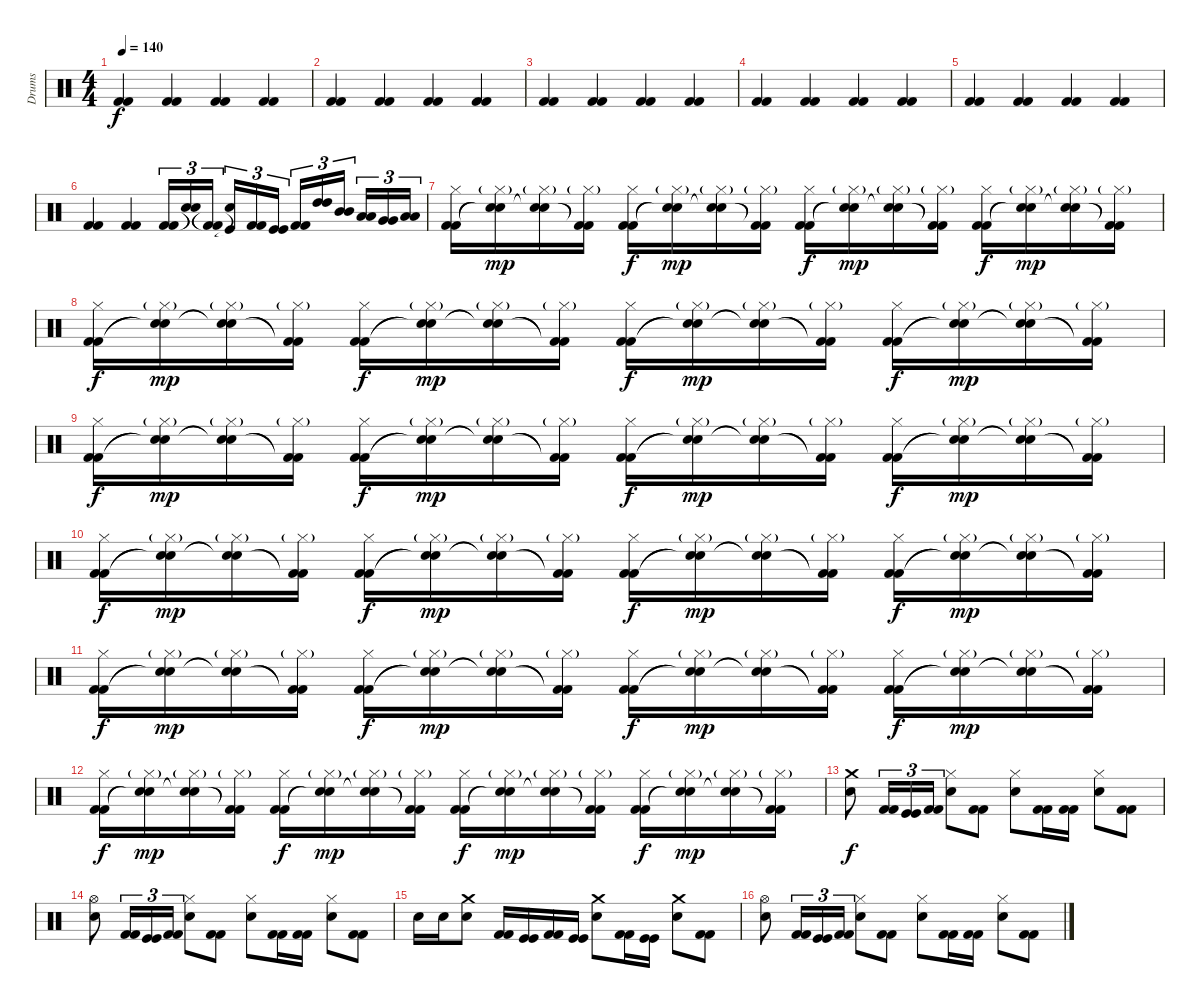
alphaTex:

\track ("Drums" "Drums") {instrument percussion}
\staff {score}
\articulation defaults
\ts (4 4)
\tempo 140
\tempo 120
\tempo 140
\clef neutral
\ks c
("Kick (hit) 2" "Kick (hit) 2").4{dy f} ("Kick (hit) 2" "Kick (hit) 2").4 ("Kick (hit) 2" "Kick (hit) 2").4 ("Kick (hit) 2" "Kick (hit) 2").4 |
("Kick (hit) 2" "Kick (hit) 2").4 ("Kick (hit) 2" "Kick (hit) 2").4 ("Kick (hit) 2" "Kick (hit) 2").4 ("Kick (hit) 2" "Kick (hit) 2").4 |
("Kick (hit) 2" "Kick (hit) 2").4 ("Kick (hit) 2" "Kick (hit) 2").4 ("Kick (hit) 2" "Kick (hit) 2").4 ("Kick (hit) 2" "Kick (hit) 2").4 |
("Kick (hit) 2" "Kick (hit) 2").4 ("Kick (hit) 2" "Kick (hit) 2").4 ("Kick (hit) 2" "Kick (hit) 2").4 ("Kick (hit) 2" "Kick (hit) 2").4 |
("Kick (hit) 2" "Kick (hit) 2").4 ("Kick (hit) 2" "Kick (hit) 2").4 ("Kick (hit) 2" "Kick (hit) 2").4 ("Kick (hit) 2" "Kick (hit) 2").4 |
("Kick (hit) 2" "Kick (hit) 2").4 ("Kick (hit) 2" "Kick (hit) 2").4 ("Kick (hit) 2" "Kick (hit) 2").16{tu (3 2)} ("Snare (hit)"{t} "Snare (hit)"{t}).16{tu (3 2)} ("Kick (hit) 2"{t} "Kick (hit) 2"{t}).16{tu (3 2)} ("Kick (hit)"{t} "Snare (hit)"{t}).16{tu (3 2)} ("Kick (hit) 2" "Kick (hit) 2").16{tu (3 2)} ("Kick (hit)" "Kick (hit)").16{tu (3 2)} ("Kick (hit) 2" "Kick (hit) 2").16{tu (3 2)} ("High Tom (hit)" "High Tom (hit)").16{tu (3 2)} ("Mid Tom (hit)" "Mid Tom (hit)").16{tu (3 2)} ("Low Tom (hit)" "Low Tom (hit)").16{tu (3 2)} ("Very Low Tom (hit)" "Very Low Tom (hit)").16{tu (3 2)} ("Low Floor Tom (hit)" "Low Floor Tom (hit)").16{tu (3 2)} |
("Hi-Hat (closed)" "Kick (hit) 2" "Kick (hit) 2").16 ("Hi-Hat (closed)"{g} "Snare (hit)"{t} "Snare (hit)"{t}).16{dy mp} ("Hi-Hat (closed)"{g} "Snare (hit)"{t} "Snare (hit)"{t}).16 ("Hi-Hat (closed)"{g} "Kick (hit) 2"{t} "Kick (hit) 2"{t}).16 ("Hi-Hat (closed)" "Kick (hit) 2" "Kick (hit) 2").16{dy f} ("Hi-Hat (closed)"{g} "Snare (hit)"{t} "Snare (hit)"{t}).16{dy mp} ("Hi-Hat (closed)"{g} "Snare (hit)"{t} "Snare (hit)"{t}).16 ("Hi-Hat (closed)"{g} "Kick (hit) 2"{t} "Kick (hit) 2"{t}).16 ("Hi-Hat (closed)" "Kick (hit) 2" "Kick (hit) 2").16{dy f} ("Hi-Hat (closed)"{g} "Snare (hit)"{t} "Snare (hit)"{t}).16{dy mp} ("Hi-Hat (closed)"{g} "Snare (hit)"{t} "Snare (hit)"{t}).16 ("Hi-Hat (closed)"{g} "Kick (hit) 2"{t} "Kick (hit) 2"{t}).16 ("Hi-Hat (closed)" "Kick (hit) 2" "Kick (hit) 2").16{dy f} ("Hi-Hat (closed)"{g} "Snare (hit)"{t} "Snare (hit)"{t}).16{dy mp} ("Hi-Hat (closed)"{g} "Snare (hit)"{t} "Snare (hit)"{t}).16 ("Hi-Hat (closed)"{g} "Kick (hit) 2"{t} "Kick (hit) 2"{t}).16 |
("Hi-Hat (closed)" "Kick (hit) 2" "Kick (hit) 2").16{dy f} ("Hi-Hat (closed)"{g} "Snare (hit)"{t} "Snare (hit)"{t}).16{dy mp} ("Hi-Hat (closed)"{g} "Snare (hit)"{t} "Snare (hit)"{t}).16 ("Hi-Hat (closed)"{g} "Kick (hit) 2"{t} "Kick (hit) 2"{t}).16 ("Hi-Hat (closed)" "Kick (hit) 2" "Kick (hit) 2").16{dy f} ("Hi-Hat (closed)"{g} "Snare (hit)"{t} "Snare (hit)"{t}).16{dy mp} ("Hi-Hat (closed)"{g} "Snare (hit)"{t} "Snare (hit)"{t}).16 ("Hi-Hat (closed)"{g} "Kick (hit) 2"{t} "Kick (hit) 2"{t}).16 ("Hi-Hat (closed)" "Kick (hit) 2" "Kick (hit) 2").16{dy f} ("Hi-Hat (closed)"{g} "Snare (hit)"{t} "Snare (hit)"{t}).16{dy mp} ("Hi-Hat (closed)"{g} "Snare (hit)"{t} "Snare (hit)"{t}).16 ("Hi-Hat (closed)"{g} "Kick (hit) 2"{t} "Kick (hit) 2"{t}).16 ("Hi-Hat (closed)" "Kick (hit) 2" "Kick (hit) 2").16{dy f} ("Hi-Hat (closed)"{g} "Snare (hit)"{t} "Snare (hit)"{t}).16{dy mp} ("Hi-Hat (closed)"{g} "Snare (hit)"{t} "Snare (hit)"{t}).16 ("Hi-Hat (closed)"{g} "Kick (hit) 2"{t} "Kick (hit) 2"{t}).16 |
("Hi-Hat (closed)" "Kick (hit) 2" "Kick (hit) 2").16{dy f} ("Hi-Hat (closed)"{g} "Snare (hit)"{t} "Snare (hit)"{t}).16{dy mp} ("Hi-Hat (closed)"{g} "Snare (hit)"{t} "Snare (hit)"{t}).16 ("Hi-Hat (closed)"{g} "Kick (hit) 2"{t} "Kick (hit) 2"{t}).16 ("Hi-Hat (closed)" "Kick (hit) 2" "Kick (hit) 2").16{dy f} ("Hi-Hat (closed)"{g} "Snare (hit)"{t} "Snare (hit)"{t}).16{dy mp} ("Hi-Hat (closed)"{g} "Snare (hit)"{t} "Snare (hit)"{t}).16 ("Hi-Hat (closed)"{g} "Kick (hit) 2"{t} "Kick (hit) 2"{t}).16 ("Hi-Hat (closed)" "Kick (hit) 2" "Kick (hit) 2").16{dy f} ("Hi-Hat (closed)"{g} "Snare (hit)"{t} "Snare (hit)"{t}).16{dy mp} ("Hi-Hat (closed)"{g} "Snare (hit)"{t} "Snare (hit)"{t}).16 ("Hi-Hat (closed)"{g} "Kick (hit) 2"{t} "Kick (hit) 2"{t}).16 ("Hi-Hat (closed)" "Kick (hit) 2" "Kick (hit) 2").16{dy f} ("Hi-Hat (closed)"{g} "Snare (hit)"{t} "Snare (hit)"{t}).16{dy mp} ("Hi-Hat (closed)"{g} "Snare (hit)"{t} "Snare (hit)"{t}).16 ("Hi-Hat (closed)"{g} "Kick (hit) 2"{t} "Kick (hit) 2"{t}).16 |
("Hi-Hat (closed)" "Kick (hit) 2" "Kick (hit) 2").16{dy f} ("Hi-Hat (closed)"{g} "Snare (hit)"{t} "Snare (hit)"{t}).16{dy mp} ("Hi-Hat (closed)"{g} "Snare (hit)"{t} "Snare (hit)"{t}).16 ("Hi-Hat (closed)"{g} "Kick (hit) 2"{t} "Kick (hit) 2"{t}).16 ("Hi-Hat (closed)" "Kick (hit) 2" "Kick (hit) 2").16{dy f} ("Hi-Hat (closed)"{g} "Snare (hit)"{t} "Snare (hit)"{t}).16{dy mp} ("Hi-Hat (closed)"{g} "Snare (hit)"{t} "Snare (hit)"{t}).16 ("Hi-Hat (closed)"{g} "Kick (hit) 2"{t} "Kick (hit) 2"{t}).16 ("Hi-Hat (closed)" "Kick (hit) 2" "Kick (hit) 2").16{dy f} ("Hi-Hat (closed)"{g} "Snare (hit)"{t} "Snare (hit)"{t}).16{dy mp} ("Hi-Hat (closed)"{g} "Snare (hit)"{t} "Snare (hit)"{t}).16 ("Hi-Hat (closed)"{g} "Kick (hit) 2"{t} "Kick (hit) 2"{t}).16 ("Hi-Hat (closed)" "Kick (hit) 2" "Kick (hit) 2").16{dy f} ("Hi-Hat (closed)"{g} "Snare (hit)"{t} "Snare (hit)"{t}).16{dy mp} ("Hi-Hat (closed)"{g} "Snare (hit)"{t} "Snare (hit)"{t}).16 ("Hi-Hat (closed)"{g} "Kick (hit) 2"{t} "Kick (hit) 2"{t}).16 |
("Hi-Hat (closed)" "Kick (hit) 2" "Kick (hit) 2").16{dy f} ("Hi-Hat (closed)"{g} "Snare (hit)"{t} "Snare (hit)"{t}).16{dy mp} ("Hi-Hat (closed)"{g} "Snare (hit)"{t} "Snare (hit)"{t}).16 ("Hi-Hat (closed)"{g} "Kick (hit) 2"{t} "Kick (hit) 2"{t}).16 ("Hi-Hat (closed)" "Kick (hit) 2" "Kick (hit) 2").16{dy f} ("Hi-Hat (closed)"{g} "Snare (hit)"{t} "Snare (hit)"{t}).16{dy mp} ("Hi-Hat (closed)"{g} "Snare (hit)"{t} "Snare (hit)"{t}).16 ("Hi-Hat (closed)"{g} "Kick (hit) 2"{t} "Kick (hit) 2"{t}).16 ("Hi-Hat (closed)" "Kick (hit) 2" "Kick (hit) 2").16{dy f} ("Hi-Hat (closed)"{g} "Snare (hit)"{t} "Snare (hit)"{t}).16{dy mp} ("Hi-Hat (closed)"{g} "Snare (hit)"{t} "Snare (hit)"{t}).16 ("Hi-Hat (closed)"{g} "Kick (hit) 2"{t} "Kick (hit) 2"{t}).16 ("Hi-Hat (closed)" "Kick (hit) 2" "Kick (hit) 2").16{dy f} ("Hi-Hat (closed)"{g} "Snare (hit)"{t} "Snare (hit)"{t}).16{dy mp} ("Hi-Hat (closed)"{g} "Snare (hit)"{t} "Snare (hit)"{t}).16 ("Hi-Hat (closed)"{g} "Kick (hit) 2"{t} "Kick (hit) 2"{t}).16 |
("Hi-Hat (closed)" "Kick (hit) 2" "Kick (hit) 2").16{dy f} ("Hi-Hat (closed)"{g} "Snare (hit)"{t} "Snare (hit)"{t}).16{dy mp} ("Hi-Hat (closed)"{g} "Snare (hit)"{t} "Snare (hit)"{t}).16 ("Hi-Hat (closed)"{g} "Kick (hit) 2"{t} "Kick (hit) 2"{t}).16 ("Hi-Hat (closed)" "Kick (hit) 2" "Kick (hit) 2").16{dy f} ("Hi-Hat (closed)"{g} "Snare (hit)"{t} "Snare (hit)"{t}).16{dy mp} ("Hi-Hat (closed)"{g} "Snare (hit)"{t} "Snare (hit)"{t}).16 ("Hi-Hat (closed)"{g} "Kick (hit) 2"{t} "Kick (hit) 2"{t}).16 ("Hi-Hat (closed)" "Kick (hit) 2" "Kick (hit) 2").16{dy f} ("Hi-Hat (closed)"{g} "Snare (hit)"{t} "Snare (hit)"{t}).16{dy mp} ("Hi-Hat (closed)"{g} "Snare (hit)"{t} "Snare (hit)"{t}).16 ("Hi-Hat (closed)"{g} "Kick (hit) 2"{t} "Kick (hit) 2"{t}).16 ("Hi-Hat (closed)" "Kick (hit) 2" "Kick (hit) 2").16{dy f} ("Hi-Hat (closed)"{g} "Snare (hit)"{t} "Snare (hit)"{t}).16{dy mp} ("Hi-Hat (closed)"{g} "Snare (hit)"{t} "Snare (hit)"{t}).16 ("Hi-Hat (closed)"{g} "Kick (hit) 2"{t} "Kick (hit) 2"{t}).16 |
("Crash medium (hit)" "Snare (hit) 2").8{dy f} ("Kick (hit) 2" "Kick (hit) 2").16{tu (3 2)} ("Kick (hit)" "Kick (hit)").16{tu (3 2)} ("Kick (hit) 2" "Kick (hit) 2").16{tu (3 2)} ("Hi-Hat (closed)" "Snare (hit) 2").8 ("Kick (hit) 2" "Kick (hit) 2").8 ("Hi-Hat (closed)" "Snare (hit) 2").8 ("Kick (hit) 2" "Kick (hit) 2").16 ("Kick (hit) 2" "Kick (hit) 2").16 ("Hi-Hat (closed)" "Snare (hit) 2").8 ("Kick (hit) 2" "Kick (hit) 2").8 |
("Hi-Hat (open)" "Snare (hit) 2").8 ("Kick (hit) 2" "Kick (hit) 2").16{tu (3 2)} ("Kick (hit)" "Kick (hit)").16{tu (3 2)} ("Kick (hit) 2" "Kick (hit) 2").16{tu (3 2)} ("Hi-Hat (closed)" "Snare (hit) 2").8 ("Kick (hit) 2" "Kick (hit) 2").8 ("Hi-Hat (closed)" "Snare (hit) 2").8 ("Kick (hit) 2" "Kick (hit) 2").16 ("Kick (hit) 2" "Kick (hit) 2").16 ("Hi-Hat (closed)" "Snare (hit) 2").8 ("Kick (hit) 2" "Kick (hit) 2").8 |
"Snare (hit) 2".16 "Snare (hit) 2".16 ("Crash medium (hit)" "Snare (hit) 2").8 ("Kick (hit) 2" "Kick (hit) 2").16 ("Kick (hit)" "Kick (hit)").16 ("Kick (hit) 2" "Kick (hit) 2").16 ("Kick (hit)" "Kick (hit)").16 ("Crash medium (hit)" "Snare (hit) 2").8 ("Kick (hit) 2" "Kick (hit) 2").16 ("Kick (hit)" "Kick (hit)").16 ("Crash medium (hit)" "Snare (hit) 2").8 ("Kick (hit) 2" "Kick (hit) 2").8 |
("Hi-Hat (open)" "Snare (hit) 2").8 ("Kick (hit) 2" "Kick (hit) 2").16{tu (3 2)} ("Kick (hit)" "Kick (hit)").16{tu (3 2)} ("Kick (hit) 2" "Kick (hit) 2").16{tu (3 2)} ("Hi-Hat (closed)" "Snare (hit) 2").8 ("Kick (hit) 2" "Kick (hit) 2").8 ("Hi-Hat (closed)" "Snare (hit) 2").8 ("Kick (hit) 2" "Kick (hit) 2").16 ("Kick (hit) 2" "Kick (hit) 2").16 ("Hi-Hat (closed)" "Snare (hit) 2").8 ("Kick (hit) 2" "Kick (hit) 2").8
